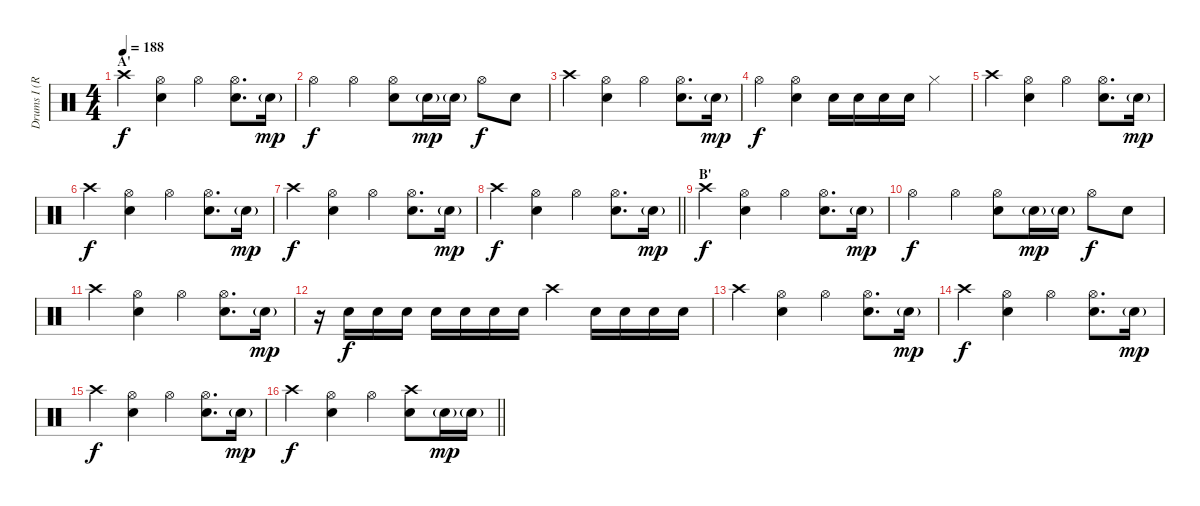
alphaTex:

\track ("Drums I (Ruka)" "Drums I (R") {instrument percussion}
\staff {score}
\articulation defaults
\ts (4 4)
\section ("" "A'")
\tempo 188
\clef neutral
\ks c "Crash high (hit)".4{dy f}
("Hi-Hat (open)" "Snare (hit) 2").4 "Hi-Hat (open)".4 ("Hi-Hat (open)" "Snare (hit) 2").8{d} "Snare (hit) 2"{g}.16{dy mp} |
"Hi-Hat (open)".4{dy f} "Hi-Hat (open)".4 ("Hi-Hat (open)" "Snare (hit) 2").8 "Snare (hit) 2"{g}.16{dy mp} "Snare (hit) 2"{g}.16 "Hi-Hat (open)".8{dy f} "Snare (hit) 2".8 |
"Crash high (hit)".4 ("Hi-Hat (open)" "Snare (hit) 2").4 "Hi-Hat (open)".4 ("Hi-Hat (open)" "Snare (hit) 2").8{d} "Snare (hit) 2"{g}.16{dy mp} |
"Hi-Hat (open)".4{dy f} ("Hi-Hat (open)" "Snare (hit) 2").4 "Snare (hit) 2".16 "Snare (hit) 2".16 "Snare (hit) 2".16 "Snare (hit) 2".16 "Hi-Hat (closed)".4 |
"Crash high (hit)".4 ("Hi-Hat (open)" "Snare (hit) 2").4 "Hi-Hat (open)".4 ("Hi-Hat (open)" "Snare (hit) 2").8{d} "Snare (hit) 2"{g}.16{dy mp} |
"Crash high (hit)".4{dy f} ("Hi-Hat (open)" "Snare (hit) 2").4 "Hi-Hat (open)".4 ("Hi-Hat (open)" "Snare (hit) 2").8{d} "Snare (hit) 2"{g}.16{dy mp} |
"Crash high (hit)".4{dy f} ("Hi-Hat (open)" "Snare (hit) 2").4 "Hi-Hat (open)".4 ("Hi-Hat (open)" "Snare (hit) 2").8{d} "Snare (hit) 2"{g}.16{dy mp} |
\barLineRight lightlight "Crash high (hit)".4{dy f}
("Hi-Hat (open)" "Snare (hit) 2").4 "Hi-Hat (open)".4 ("Hi-Hat (open)" "Snare (hit) 2").8{d} "Snare (hit) 2"{g}.16{dy mp} |
\section ("" "B'")
"Crash high (hit)".4{dy f} ("Hi-Hat (open)" "Snare (hit) 2").4 "Hi-Hat (open)".4 ("Hi-Hat (open)" "Snare (hit) 2").8{d} "Snare (hit) 2"{g}.16{dy mp} |
"Hi-Hat (open)".4{dy f} "Hi-Hat (open)".4 ("Hi-Hat (open)" "Snare (hit) 2").8 "Snare (hit) 2"{g}.16{dy mp} "Snare (hit) 2"{g}.16 "Hi-Hat (open)".8{dy f} "Snare (hit) 2".8 |
"Crash high (hit)".4 ("Hi-Hat (open)" "Snare (hit) 2").4 "Hi-Hat (open)".4 ("Hi-Hat (open)" "Snare (hit) 2").8{d} "Snare (hit) 2"{g}.16{dy mp} |
r.16 "Snare (hit) 2".16{dy f} "Snare (hit) 2".16 "Snare (hit) 2".16 "Snare (hit) 2".16 "Snare (hit) 2".16 "Snare (hit) 2".16 "Snare (hit) 2".16 "Crash high (hit)".4 "Snare (hit) 2".16 "Snare (hit) 2".16 "Snare (hit) 2".16 "Snare (hit) 2".16 |
"Crash high (hit)".4 ("Hi-Hat (open)" "Snare (hit) 2").4 "Hi-Hat (open)".4 ("Hi-Hat (open)" "Snare (hit) 2").8{d} "Snare (hit) 2"{g}.16{dy mp} |
"Crash high (hit)".4{dy f} ("Hi-Hat (open)" "Snare (hit) 2").4 "Hi-Hat (open)".4 ("Hi-Hat (open)" "Snare (hit) 2").8{d} "Snare (hit) 2"{g}.16{dy mp} |
"Crash high (hit)".4{dy f} ("Hi-Hat (open)" "Snare (hit) 2").4 "Hi-Hat (open)".4 ("Hi-Hat (open)" "Snare (hit) 2").8{d} "Snare (hit) 2"{g}.16{dy mp} |
\barLineRight lightlight "Crash high (hit)".4{dy f}
("Hi-Hat (open)" "Snare (hit) 2").4 "Hi-Hat (open)".4 ("Crash high (hit)" "Snare (hit) 2").8 "Snare (hit) 2"{g}.16{dy mp} "Snare (hit) 2"{g}.16
